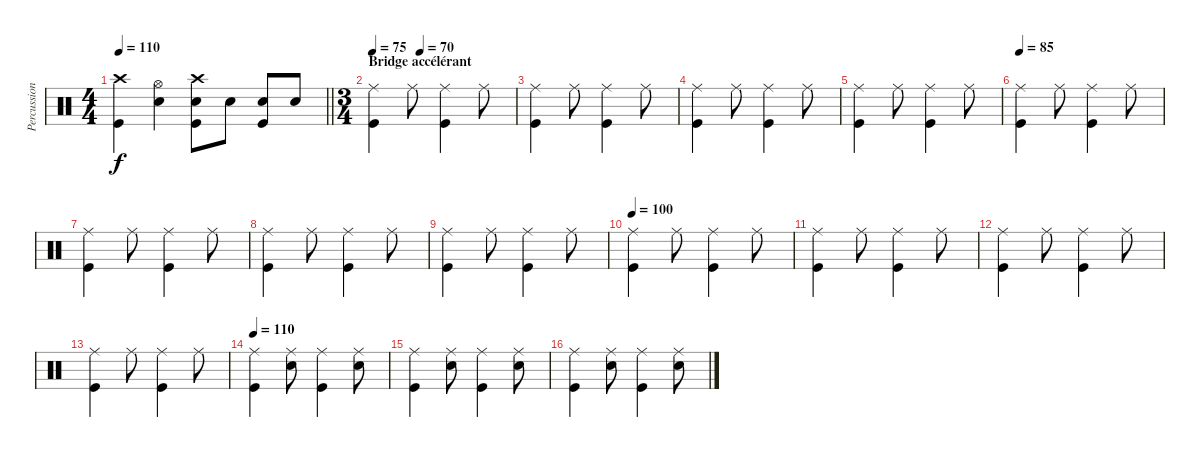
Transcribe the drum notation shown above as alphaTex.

\track ("Percussions" "Percussion") {instrument percussion}
\staff {score}
\articulation defaults
\ts (4 4)
\tempo 110
\clef neutral
\barLineRight lightlight
\ks c
("Crash high (hit)" "Kick (hit)").4{dy f} ("Hi-Hat (open)" "Snare (hit) 2").4 ("Crash high (hit)" "Snare (hit) 2" "Kick (hit)").8 "Snare (hit) 2".8 ("Snare (hit) 2" "Kick (hit)").8 "Snare (hit) 2".8 |
\ts (3 4)
\section ("" "Bridge accélérant")
\tempo 75
\tempo (70 0.3333333333333333)
("Ride (middle)" "Kick (hit)").4 "Ride (middle)".8 ("Ride (middle)" "Kick (hit)").4 "Ride (middle)".8 |
("Ride (middle)" "Kick (hit)").4 "Ride (middle)".8 ("Ride (middle)" "Kick (hit)").4 "Ride (middle)".8 |
("Ride (middle)" "Kick (hit)").4 "Ride (middle)".8 ("Ride (middle)" "Kick (hit)").4 "Ride (middle)".8 |
("Ride (middle)" "Kick (hit)").4 "Ride (middle)".8 ("Ride (middle)" "Kick (hit)").4 "Ride (middle)".8 |
\tempo 85
("Ride (middle)" "Kick (hit)").4 "Ride (middle)".8 ("Ride (middle)" "Kick (hit)").4 "Ride (middle)".8 |
("Ride (middle)" "Kick (hit)").4 "Ride (middle)".8 ("Ride (middle)" "Kick (hit)").4 "Ride (middle)".8 |
("Ride (middle)" "Kick (hit)").4 "Ride (middle)".8 ("Ride (middle)" "Kick (hit)").4 "Ride (middle)".8 |
("Ride (middle)" "Kick (hit)").4 "Ride (middle)".8 ("Ride (middle)" "Kick (hit)").4 "Ride (middle)".8 |
\tempo 100
("Ride (middle)" "Kick (hit)").4 "Ride (middle)".8 ("Ride (middle)" "Kick (hit)").4 "Ride (middle)".8 |
("Ride (middle)" "Kick (hit)").4 "Ride (middle)".8 ("Ride (middle)" "Kick (hit)").4 "Ride (middle)".8 |
("Ride (middle)" "Kick (hit)").4 "Ride (middle)".8 ("Ride (middle)" "Kick (hit)").4 "Ride (middle)".8 |
("Ride (middle)" "Kick (hit)").4 "Ride (middle)".8 ("Ride (middle)" "Kick (hit)").4 "Ride (middle)".8 |
\tempo 110
("Ride (middle)" "Kick (hit)").4 ("Ride (middle)" "Snare (hit) 2").8 ("Ride (middle)" "Kick (hit)").4 ("Ride (middle)" "Snare (hit) 2").8 |
("Ride (middle)" "Kick (hit)").4 ("Ride (middle)" "Snare (hit) 2").8 ("Ride (middle)" "Kick (hit)").4 ("Ride (middle)" "Snare (hit) 2").8 |
("Ride (middle)" "Kick (hit)").4 ("Ride (middle)" "Snare (hit) 2").8 ("Ride (middle)" "Kick (hit)").4 ("Ride (middle)" "Snare (hit) 2").8
